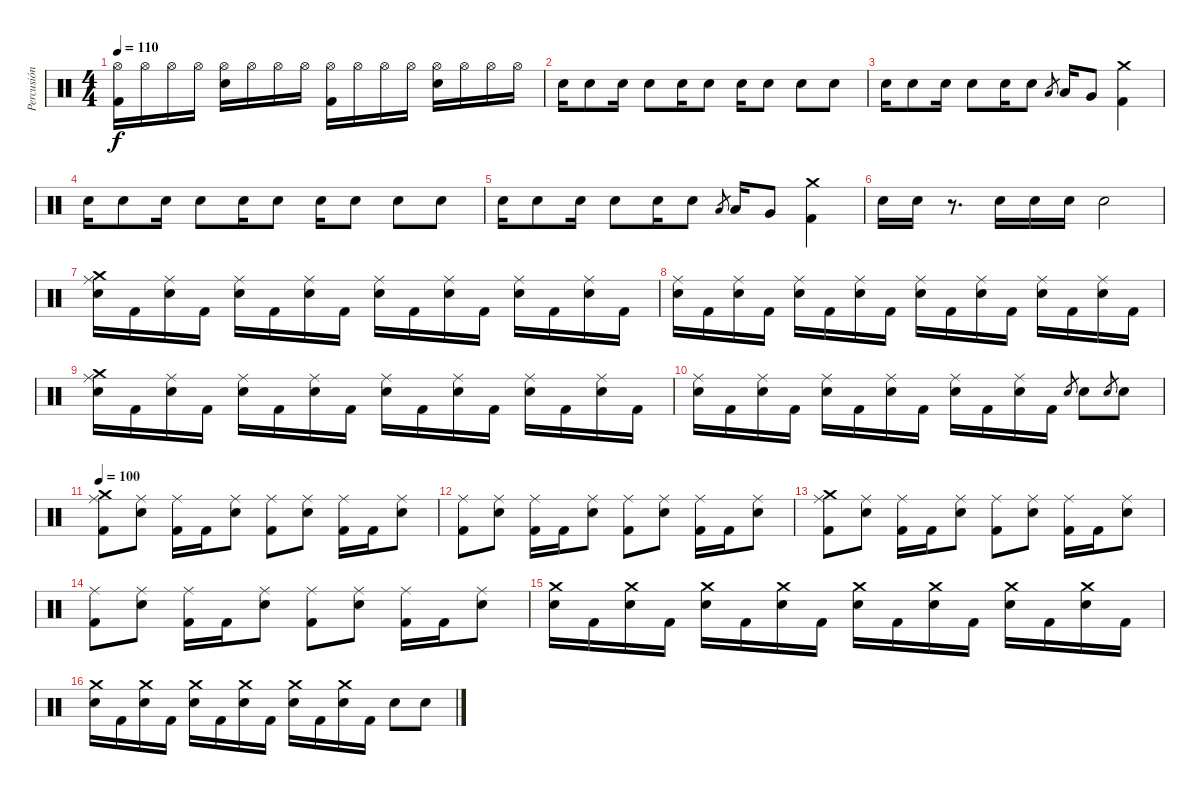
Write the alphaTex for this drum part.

\track ("Percusión" "Percusión") {instrument percussion}
\staff {score}
\articulation defaults
\ts (4 4)
\tempo 110
\clef neutral
\ks c
("Hi-Hat (open)" "Kick (hit) 2").16{dy f} "Hi-Hat (open)".16 "Hi-Hat (open)".16 "Hi-Hat (open)".16 ("Hi-Hat (open)" "Snare (hit) 2").16 "Hi-Hat (open)".16 "Hi-Hat (open)".16 "Hi-Hat (open)".16 ("Hi-Hat (open)" "Kick (hit) 2").16 "Hi-Hat (open)".16 "Hi-Hat (open)".16 "Hi-Hat (open)".16 ("Hi-Hat (open)" "Snare (hit) 2").16 "Hi-Hat (open)".16 "Hi-Hat (open)".16 "Hi-Hat (open)".16 |
"Snare (hit) 2".16 "Snare (hit) 2".8 "Snare (hit) 2".16 "Snare (hit) 2".8 "Snare (hit) 2".16 "Snare (hit) 2".8 "Snare (hit) 2".16 "Snare (hit) 2".8 "Snare (hit) 2".8 "Snare (hit) 2".8 |
"Snare (hit) 2".16 "Snare (hit) 2".8 "Snare (hit) 2".16 "Snare (hit) 2".8 "Snare (hit) 2".16 "Snare (hit) 2".8 "Low Tom (hit)".8{gr} "Low Tom (hit)".16 "Very Low Tom (hit)".8 ("Crash medium (hit)" "Kick (hit) 2").4 |
"Snare (hit) 2".16 "Snare (hit) 2".8 "Snare (hit) 2".16 "Snare (hit) 2".8 "Snare (hit) 2".16 "Snare (hit) 2".8 "Snare (hit) 2".16 "Snare (hit) 2".8 "Snare (hit) 2".8 "Snare (hit) 2".8 |
"Snare (hit) 2".16 "Snare (hit) 2".8 "Snare (hit) 2".16 "Snare (hit) 2".8 "Snare (hit) 2".16 "Snare (hit) 2".8 "Low Tom (hit)".8{gr} "Low Tom (hit)".16 "Very Low Tom (hit)".8 ("Crash medium (hit)" "Kick (hit) 2").4 |
"Snare (hit) 2".16 "Snare (hit) 2".16 r.8{d} "Snare (hit) 2".16 "Snare (hit) 2".16 "Snare (hit) 2".16 "Snare (hit) 2".2 |
("Crash medium (hit)" "Ride (middle)" "Snare (hit) 2").16 "Kick (hit) 2".16 ("Ride (middle)" "Snare (hit) 2").16 "Kick (hit) 2".16 ("Ride (middle)" "Snare (hit) 2").16 "Kick (hit) 2".16 ("Ride (middle)" "Snare (hit) 2").16 "Kick (hit) 2".16 ("Ride (middle)" "Snare (hit) 2").16 "Kick (hit) 2".16 ("Ride (middle)" "Snare (hit) 2").16 "Kick (hit) 2".16 ("Ride (middle)" "Snare (hit) 2").16 "Kick (hit) 2".16 ("Ride (middle)" "Snare (hit) 2").16 "Kick (hit) 2".16 |
("Ride (middle)" "Snare (hit) 2").16 "Kick (hit) 2".16 ("Ride (middle)" "Snare (hit) 2").16 "Kick (hit) 2".16 ("Ride (middle)" "Snare (hit) 2").16 "Kick (hit) 2".16 ("Ride (middle)" "Snare (hit) 2").16 "Kick (hit) 2".16 ("Ride (middle)" "Snare (hit) 2").16 "Kick (hit) 2".16 ("Ride (middle)" "Snare (hit) 2").16 "Kick (hit) 2".16 ("Ride (middle)" "Snare (hit) 2").16 "Kick (hit) 2".16 ("Ride (middle)" "Snare (hit) 2").16 "Kick (hit) 2".16 |
("Crash medium (hit)" "Ride (middle)" "Snare (hit) 2").16 "Kick (hit) 2".16 ("Ride (middle)" "Snare (hit) 2").16 "Kick (hit) 2".16 ("Ride (middle)" "Snare (hit) 2").16 "Kick (hit) 2".16 ("Ride (middle)" "Snare (hit) 2").16 "Kick (hit) 2".16 ("Ride (middle)" "Snare (hit) 2").16 "Kick (hit) 2".16 ("Ride (middle)" "Snare (hit) 2").16 "Kick (hit) 2".16 ("Ride (middle)" "Snare (hit) 2").16 "Kick (hit) 2".16 ("Ride (middle)" "Snare (hit) 2").16 "Kick (hit) 2".16 |
("Ride (middle)" "Snare (hit) 2").16 "Kick (hit) 2".16 ("Ride (middle)" "Snare (hit) 2").16 "Kick (hit) 2".16 ("Ride (middle)" "Snare (hit) 2").16 "Kick (hit) 2".16 ("Ride (middle)" "Snare (hit) 2").16 "Kick (hit) 2".16 ("Ride (middle)" "Snare (hit) 2").16 "Kick (hit) 2".16 ("Ride (middle)" "Snare (hit) 2").16 "Kick (hit) 2".16 "Snare (hit) 2".8{gr} "Snare (hit) 2".8 "Snare (hit) 2".8{gr} "Snare (hit) 2".8 |
\tempo 100
("Kick (hit) 2" "Ride (middle)" "Crash medium (hit)").8 ("Snare (hit) 2" "Ride (middle)").8 ("Kick (hit) 2" "Ride (middle)").16 "Kick (hit) 2".16 ("Snare (hit) 2" "Ride (middle)").8 ("Kick (hit) 2" "Ride (middle)").8 ("Snare (hit) 2" "Ride (middle)").8 ("Kick (hit) 2" "Ride (middle)").16 "Kick (hit) 2".16 ("Snare (hit) 2" "Ride (middle)").8 |
("Kick (hit) 2" "Ride (middle)").8 ("Snare (hit) 2" "Ride (middle)").8 ("Kick (hit) 2" "Ride (middle)").16 "Kick (hit) 2".16 ("Snare (hit) 2" "Ride (middle)").8 ("Kick (hit) 2" "Ride (middle)").8 ("Snare (hit) 2" "Ride (middle)").8 ("Kick (hit) 2" "Ride (middle)").16 "Kick (hit) 2".16 ("Snare (hit) 2" "Ride (middle)").8 |
("Kick (hit) 2" "Ride (middle)" "Crash medium (hit)").8 ("Snare (hit) 2" "Ride (middle)").8 ("Kick (hit) 2" "Ride (middle)").16 "Kick (hit) 2".16 ("Snare (hit) 2" "Ride (middle)").8 ("Kick (hit) 2" "Ride (middle)").8 ("Snare (hit) 2" "Ride (middle)").8 ("Kick (hit) 2" "Ride (middle)").16 "Kick (hit) 2".16 ("Snare (hit) 2" "Ride (middle)").8 |
("Kick (hit) 2" "Ride (middle)").8 ("Snare (hit) 2" "Ride (middle)").8 ("Kick (hit) 2" "Ride (middle)").16 "Kick (hit) 2".16 ("Snare (hit) 2" "Ride (middle)").8 ("Kick (hit) 2" "Ride (middle)").8 ("Snare (hit) 2" "Ride (middle)").8 ("Kick (hit) 2" "Ride (middle)").16 "Kick (hit) 2".16 ("Snare (hit) 2" "Ride (middle)").8 |
("Crash medium (hit)" "Snare (hit) 2").16 "Kick (hit) 2".16 ("Crash medium (hit)" "Snare (hit) 2").16 "Kick (hit) 2".16 ("Crash medium (hit)" "Snare (hit) 2").16 "Kick (hit) 2".16 ("Crash medium (hit)" "Snare (hit) 2").16 "Kick (hit) 2".16 ("Crash medium (hit)" "Snare (hit) 2").16 "Kick (hit) 2".16 ("Crash medium (hit)" "Snare (hit) 2").16 "Kick (hit) 2".16 ("Crash medium (hit)" "Snare (hit) 2").16 "Kick (hit) 2".16 ("Crash medium (hit)" "Snare (hit) 2").16 "Kick (hit) 2".16 |
("Crash medium (hit)" "Snare (hit) 2").16 "Kick (hit) 2".16 ("Crash medium (hit)" "Snare (hit) 2").16 "Kick (hit) 2".16 ("Crash medium (hit)" "Snare (hit) 2").16 "Kick (hit) 2".16 ("Crash medium (hit)" "Snare (hit) 2").16 "Kick (hit) 2".16 ("Crash medium (hit)" "Snare (hit) 2").16 "Kick (hit) 2".16 ("Crash medium (hit)" "Snare (hit) 2").16 "Kick (hit) 2".16 "Snare (hit) 2".8 "Snare (hit) 2".8
